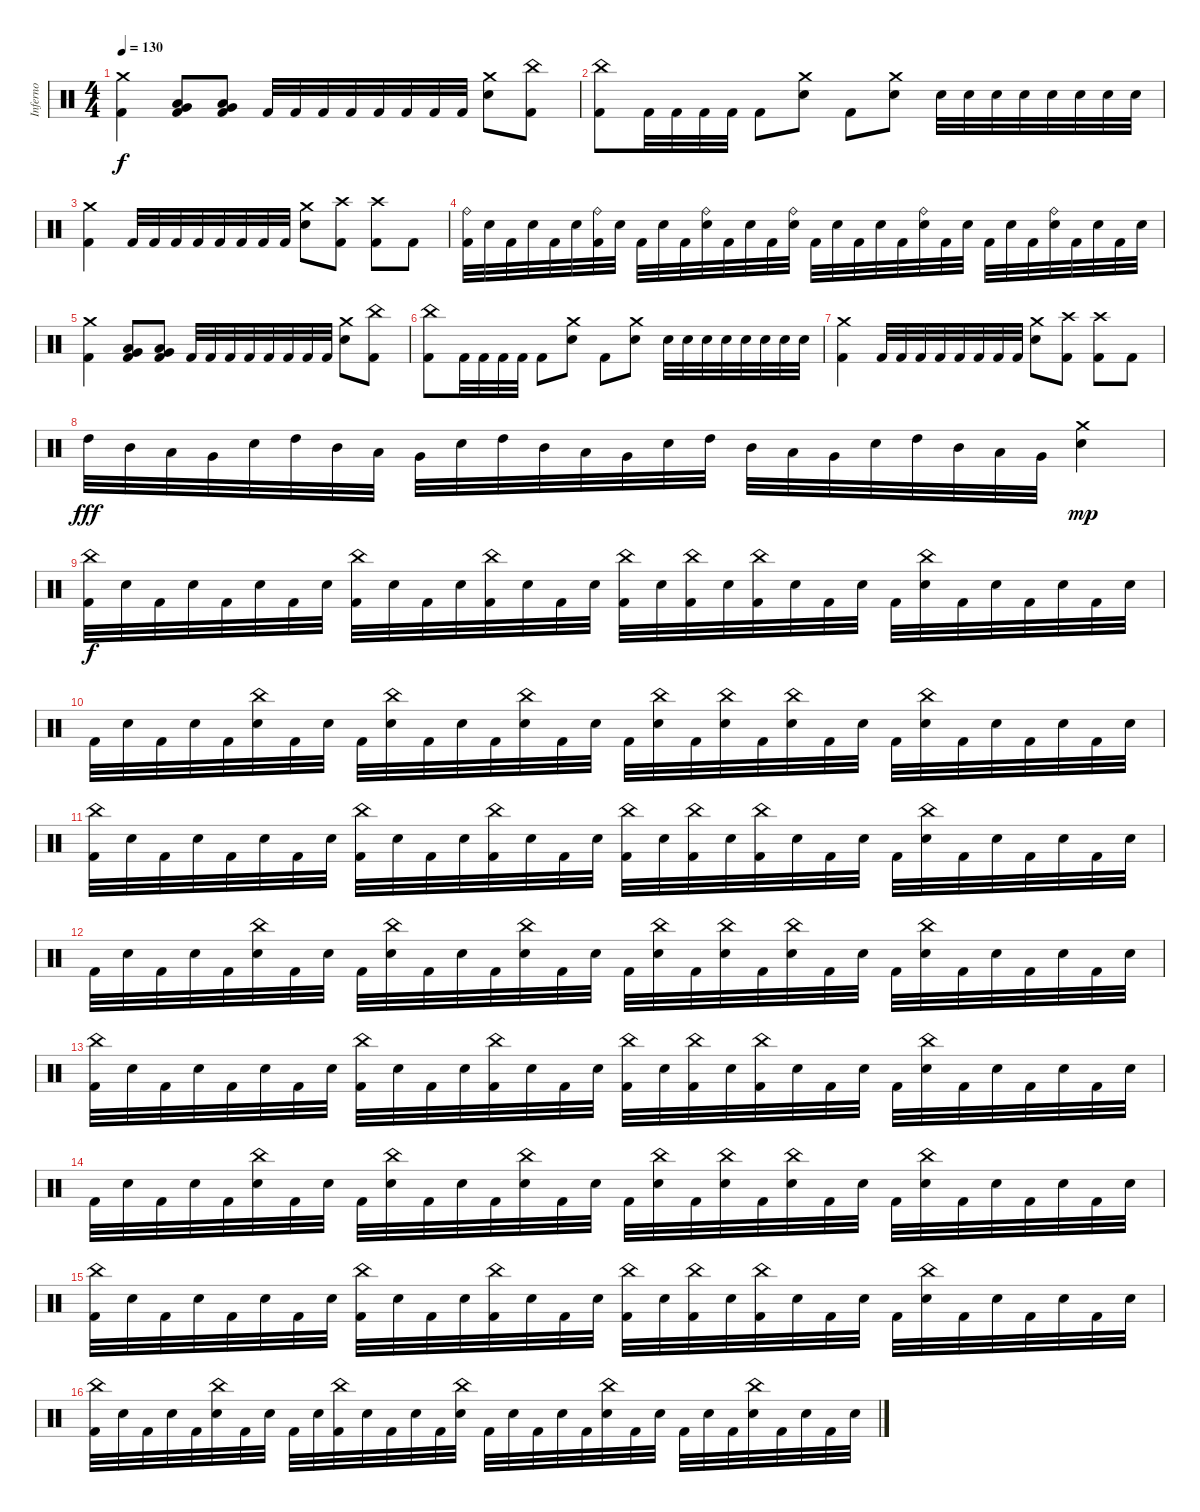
\track ("Inferno" "Inferno") {instrument percussion}
\staff {score}
\articulation defaults
\ts (4 4)
\tempo 130
\clef neutral
\ks c
("Crash medium (hit)" "Kick (hit) 2").4{dy f} ("Very Low Tom (hit)" "Low Floor Tom (hit)" "Kick (hit) 2").8 ("Very Low Tom (hit)" "Low Floor Tom (hit)" "Kick (hit) 2").8 "Kick (hit) 2".32 "Kick (hit) 2".32 "Kick (hit) 2".32 "Kick (hit) 2".32 "Kick (hit) 2".32 "Kick (hit) 2".32 "Kick (hit) 2".32 "Kick (hit) 2".32 ("Crash medium (hit)" "Snare (hit) 2").8 ("China (hit)" "Kick (hit) 2").8 |
("China (hit)" "Kick (hit) 2").8 "Kick (hit) 2".32 "Kick (hit) 2".32 "Kick (hit) 2".32 "Kick (hit) 2".32 "Kick (hit) 2".8 ("Crash medium (hit)" "Snare (hit) 2").8 "Kick (hit) 2".8 ("Crash medium (hit)" "Snare (hit) 2").8 "Snare (hit) 2".32 "Snare (hit) 2".32 "Snare (hit) 2".32 "Snare (hit) 2".32 "Snare (hit) 2".32 "Snare (hit) 2".32 "Snare (hit) 2".32 "Snare (hit) 2".32 |
("Crash medium (hit)" "Kick (hit) 2").4 "Kick (hit) 2".32 "Kick (hit) 2".32 "Kick (hit) 2".32 "Kick (hit) 2".32 "Kick (hit) 2".32 "Kick (hit) 2".32 "Kick (hit) 2".32 "Kick (hit) 2".32 ("Crash medium (hit)" "Snare (hit) 2").8 ("Crash high (hit)" "Kick (hit) 2").8 ("Crash high (hit)" "Kick (hit) 2").8 "Kick (hit) 2".8 |
("Ride (bell)" "Kick (hit) 2").32 "Snare (hit) 2".32 "Kick (hit) 2".32 "Snare (hit) 2".32 "Kick (hit) 2".32 "Snare (hit) 2".32 ("Ride (bell)" "Kick (hit) 2").32 "Snare (hit) 2".32 "Kick (hit) 2".32 "Snare (hit) 2".32 "Kick (hit) 2".32 ("Ride (bell)" "Snare (hit) 2").32 "Kick (hit) 2".32 "Snare (hit) 2".32 "Kick (hit) 2".32 ("Ride (bell)" "Snare (hit) 2").32 "Kick (hit) 2".32 "Snare (hit) 2".32 "Kick (hit) 2".32 "Snare (hit) 2".32 "Kick (hit) 2".32 ("Ride (bell)" "Snare (hit) 2").32 "Kick (hit) 2".32 "Snare (hit) 2".32 "Kick (hit) 2".32 "Snare (hit) 2".32 "Kick (hit) 2".32 ("Ride (bell)" "Snare (hit) 2").32 "Kick (hit) 2".32 "Snare (hit) 2".32 "Kick (hit) 2".32 "Snare (hit) 2".32 |
("Crash medium (hit)" "Kick (hit) 2").4 ("Very Low Tom (hit)" "Low Floor Tom (hit)" "Kick (hit) 2").8 ("Very Low Tom (hit)" "Low Floor Tom (hit)" "Kick (hit) 2").8 "Kick (hit) 2".32 "Kick (hit) 2".32 "Kick (hit) 2".32 "Kick (hit) 2".32 "Kick (hit) 2".32 "Kick (hit) 2".32 "Kick (hit) 2".32 "Kick (hit) 2".32 ("Crash medium (hit)" "Snare (hit) 2").8 ("China (hit)" "Kick (hit) 2").8 |
("China (hit)" "Kick (hit) 2").8 "Kick (hit) 2".32 "Kick (hit) 2".32 "Kick (hit) 2".32 "Kick (hit) 2".32 "Kick (hit) 2".8 ("Crash medium (hit)" "Snare (hit) 2").8 "Kick (hit) 2".8 ("Crash medium (hit)" "Snare (hit) 2").8 "Snare (hit) 2".32 "Snare (hit) 2".32 "Snare (hit) 2".32 "Snare (hit) 2".32 "Snare (hit) 2".32 "Snare (hit) 2".32 "Snare (hit) 2".32 "Snare (hit) 2".32 |
("Crash medium (hit)" "Kick (hit) 2").4 "Kick (hit) 2".32 "Kick (hit) 2".32 "Kick (hit) 2".32 "Kick (hit) 2".32 "Kick (hit) 2".32 "Kick (hit) 2".32 "Kick (hit) 2".32 "Kick (hit) 2".32 ("Crash medium (hit)" "Snare (hit) 2").8 ("Crash high (hit)" "Kick (hit) 2").8 ("Crash high (hit)" "Kick (hit) 2").8 "Kick (hit) 2".8 |
"High Tom (hit)".32{dy fff} "Mid Tom (hit)".32 "Low Tom (hit)".32 "Very Low Tom (hit)".32 "Snare (hit) 2".32 "High Tom (hit)".32 "Mid Tom (hit)".32 "Low Tom (hit)".32 "Very Low Tom (hit)".32 "Snare (hit) 2".32 "High Tom (hit)".32 "Mid Tom (hit)".32 "Low Tom (hit)".32 "Very Low Tom (hit)".32 "Snare (hit) 2".32 "High Tom (hit)".32 "Mid Tom (hit)".32 "Low Tom (hit)".32 "Very Low Tom (hit)".32 "Snare (hit) 2".32 "High Tom (hit)".32 "Mid Tom (hit)".32 "Low Tom (hit)".32 "Very Low Tom (hit)".32 ("Crash medium (hit)" "Snare (hit) 2").4{dy mp} |
("China (hit)" "Kick (hit) 2").32{dy f} "Snare (hit) 2".32 "Kick (hit) 2".32 "Snare (hit) 2".32 "Kick (hit) 2".32 "Snare (hit) 2".32 "Kick (hit) 2".32 "Snare (hit) 2".32 ("China (hit)" "Kick (hit) 2").32 "Snare (hit) 2".32 "Kick (hit) 2".32 "Snare (hit) 2".32 ("China (hit)" "Kick (hit) 2").32 "Snare (hit) 2".32 "Kick (hit) 2".32 "Snare (hit) 2".32 ("China (hit)" "Kick (hit) 2").32 "Snare (hit) 2".32 ("China (hit)" "Kick (hit) 2").32 "Snare (hit) 2".32 ("China (hit)" "Kick (hit) 2").32 "Snare (hit) 2".32 "Kick (hit) 2".32 "Snare (hit) 2".32 "Kick (hit) 2".32 ("China (hit)" "Snare (hit) 2").32 "Kick (hit) 2".32 "Snare (hit) 2".32 "Kick (hit) 2".32 "Snare (hit) 2".32 "Kick (hit) 2".32 "Snare (hit) 2".32 |
"Kick (hit) 2".32 "Snare (hit) 2".32 "Kick (hit) 2".32 "Snare (hit) 2".32 "Kick (hit) 2".32 ("China (hit)" "Snare (hit) 2").32 "Kick (hit) 2".32 "Snare (hit) 2".32 "Kick (hit) 2".32 ("China (hit)" "Snare (hit) 2").32 "Kick (hit) 2".32 "Snare (hit) 2".32 "Kick (hit) 2".32 ("China (hit)" "Snare (hit) 2").32 "Kick (hit) 2".32 "Snare (hit) 2".32 "Kick (hit) 2".32 ("China (hit)" "Snare (hit) 2").32 "Kick (hit) 2".32 ("China (hit)" "Snare (hit) 2").32 "Kick (hit) 2".32 ("China (hit)" "Snare (hit) 2").32 "Kick (hit) 2".32 "Snare (hit) 2".32 "Kick (hit) 2".32 ("China (hit)" "Snare (hit) 2").32 "Kick (hit) 2".32 "Snare (hit) 2".32 "Kick (hit) 2".32 "Snare (hit) 2".32 "Kick (hit) 2".32 "Snare (hit) 2".32 |
("China (hit)" "Kick (hit) 2").32 "Snare (hit) 2".32 "Kick (hit) 2".32 "Snare (hit) 2".32 "Kick (hit) 2".32 "Snare (hit) 2".32 "Kick (hit) 2".32 "Snare (hit) 2".32 ("China (hit)" "Kick (hit) 2").32 "Snare (hit) 2".32 "Kick (hit) 2".32 "Snare (hit) 2".32 ("China (hit)" "Kick (hit) 2").32 "Snare (hit) 2".32 "Kick (hit) 2".32 "Snare (hit) 2".32 ("China (hit)" "Kick (hit) 2").32 "Snare (hit) 2".32 ("China (hit)" "Kick (hit) 2").32 "Snare (hit) 2".32 ("China (hit)" "Kick (hit) 2").32 "Snare (hit) 2".32 "Kick (hit) 2".32 "Snare (hit) 2".32 "Kick (hit) 2".32 ("China (hit)" "Snare (hit) 2").32 "Kick (hit) 2".32 "Snare (hit) 2".32 "Kick (hit) 2".32 "Snare (hit) 2".32 "Kick (hit) 2".32 "Snare (hit) 2".32 |
"Kick (hit) 2".32 "Snare (hit) 2".32 "Kick (hit) 2".32 "Snare (hit) 2".32 "Kick (hit) 2".32 ("China (hit)" "Snare (hit) 2").32 "Kick (hit) 2".32 "Snare (hit) 2".32 "Kick (hit) 2".32 ("China (hit)" "Snare (hit) 2").32 "Kick (hit) 2".32 "Snare (hit) 2".32 "Kick (hit) 2".32 ("China (hit)" "Snare (hit) 2").32 "Kick (hit) 2".32 "Snare (hit) 2".32 "Kick (hit) 2".32 ("China (hit)" "Snare (hit) 2").32 "Kick (hit) 2".32 ("China (hit)" "Snare (hit) 2").32 "Kick (hit) 2".32 ("China (hit)" "Snare (hit) 2").32 "Kick (hit) 2".32 "Snare (hit) 2".32 "Kick (hit) 2".32 ("China (hit)" "Snare (hit) 2").32 "Kick (hit) 2".32 "Snare (hit) 2".32 "Kick (hit) 2".32 "Snare (hit) 2".32 "Kick (hit) 2".32 "Snare (hit) 2".32 |
("China (hit)" "Kick (hit) 2").32 "Snare (hit) 2".32 "Kick (hit) 2".32 "Snare (hit) 2".32 "Kick (hit) 2".32 "Snare (hit) 2".32 "Kick (hit) 2".32 "Snare (hit) 2".32 ("China (hit)" "Kick (hit) 2").32 "Snare (hit) 2".32 "Kick (hit) 2".32 "Snare (hit) 2".32 ("China (hit)" "Kick (hit) 2").32 "Snare (hit) 2".32 "Kick (hit) 2".32 "Snare (hit) 2".32 ("China (hit)" "Kick (hit) 2").32 "Snare (hit) 2".32 ("China (hit)" "Kick (hit) 2").32 "Snare (hit) 2".32 ("China (hit)" "Kick (hit) 2").32 "Snare (hit) 2".32 "Kick (hit) 2".32 "Snare (hit) 2".32 "Kick (hit) 2".32 ("China (hit)" "Snare (hit) 2").32 "Kick (hit) 2".32 "Snare (hit) 2".32 "Kick (hit) 2".32 "Snare (hit) 2".32 "Kick (hit) 2".32 "Snare (hit) 2".32 |
"Kick (hit) 2".32 "Snare (hit) 2".32 "Kick (hit) 2".32 "Snare (hit) 2".32 "Kick (hit) 2".32 ("China (hit)" "Snare (hit) 2").32 "Kick (hit) 2".32 "Snare (hit) 2".32 "Kick (hit) 2".32 ("China (hit)" "Snare (hit) 2").32 "Kick (hit) 2".32 "Snare (hit) 2".32 "Kick (hit) 2".32 ("China (hit)" "Snare (hit) 2").32 "Kick (hit) 2".32 "Snare (hit) 2".32 "Kick (hit) 2".32 ("China (hit)" "Snare (hit) 2").32 "Kick (hit) 2".32 ("China (hit)" "Snare (hit) 2").32 "Kick (hit) 2".32 ("China (hit)" "Snare (hit) 2").32 "Kick (hit) 2".32 "Snare (hit) 2".32 "Kick (hit) 2".32 ("China (hit)" "Snare (hit) 2").32 "Kick (hit) 2".32 "Snare (hit) 2".32 "Kick (hit) 2".32 "Snare (hit) 2".32 "Kick (hit) 2".32 "Snare (hit) 2".32 |
("China (hit)" "Kick (hit) 2").32 "Snare (hit) 2".32 "Kick (hit) 2".32 "Snare (hit) 2".32 "Kick (hit) 2".32 "Snare (hit) 2".32 "Kick (hit) 2".32 "Snare (hit) 2".32 ("China (hit)" "Kick (hit) 2").32 "Snare (hit) 2".32 "Kick (hit) 2".32 "Snare (hit) 2".32 ("China (hit)" "Kick (hit) 2").32 "Snare (hit) 2".32 "Kick (hit) 2".32 "Snare (hit) 2".32 ("China (hit)" "Kick (hit) 2").32 "Snare (hit) 2".32 ("China (hit)" "Kick (hit) 2").32 "Snare (hit) 2".32 ("China (hit)" "Kick (hit) 2").32 "Snare (hit) 2".32 "Kick (hit) 2".32 "Snare (hit) 2".32 "Kick (hit) 2".32 ("China (hit)" "Snare (hit) 2").32 "Kick (hit) 2".32 "Snare (hit) 2".32 "Kick (hit) 2".32 "Snare (hit) 2".32 "Kick (hit) 2".32 "Snare (hit) 2".32 |
("China (hit)" "Kick (hit) 2").32 "Snare (hit) 2".32 "Kick (hit) 2".32 "Snare (hit) 2".32 "Kick (hit) 2".32 ("China (hit)" "Snare (hit) 2").32 "Kick (hit) 2".32 "Snare (hit) 2".32 "Kick (hit) 2".32 "Snare (hit) 2".32 ("China (hit)" "Kick (hit) 2").32 "Snare (hit) 2".32 "Kick (hit) 2".32 "Snare (hit) 2".32 "Kick (hit) 2".32 ("China (hit)" "Snare (hit) 2").32 "Kick (hit) 2".32 "Snare (hit) 2".32 "Kick (hit) 2".32 "Snare (hit) 2".32 "Kick (hit) 2".32 ("China (hit)" "Snare (hit) 2").32 "Kick (hit) 2".32 "Snare (hit) 2".32 "Kick (hit) 2".32 "Snare (hit) 2".32 "Kick (hit) 2".32 ("China (hit)" "Snare (hit) 2").32 "Kick (hit) 2".32 "Snare (hit) 2".32 "Kick (hit) 2".32 "Snare (hit) 2".32
